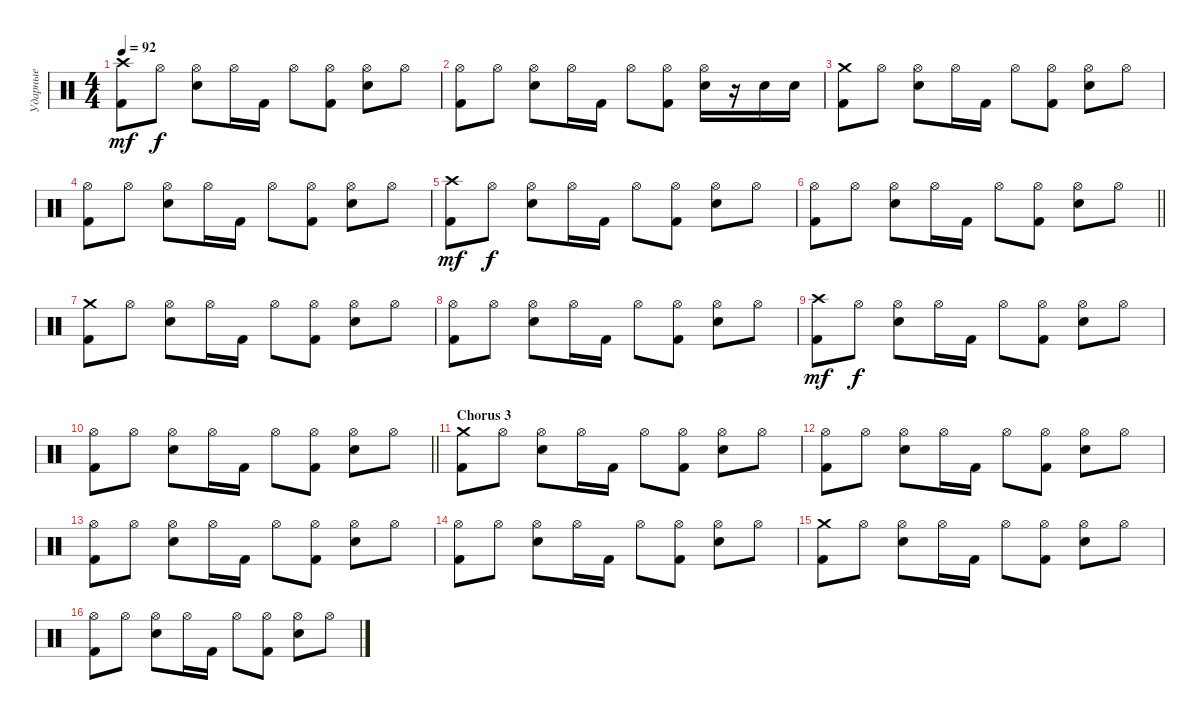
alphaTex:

\track ("Ударные" "Ударные") {instrument percussion}
\staff {score}
\articulation defaults
\ts (4 4)
\tempo 92
\clef neutral
\ks c
("Crash high (hit)" "Kick (hit) 2").8{dy mf} "Hi-Hat (open)".8{dy f} ("Hi-Hat (open)" "Electric Snare (hit)").8 "Hi-Hat (open)".16 "Kick (hit) 2".16 "Hi-Hat (open)".8 ("Hi-Hat (open)" "Kick (hit) 2").8 ("Hi-Hat (open)" "Electric Snare (hit)").8 "Hi-Hat (open)".8 |
("Hi-Hat (open)" "Kick (hit) 2").8 "Hi-Hat (open)".8 ("Hi-Hat (open)" "Electric Snare (hit)").8 "Hi-Hat (open)".16 "Kick (hit) 2".16 "Hi-Hat (open)".8 ("Hi-Hat (open)" "Kick (hit) 2").8 ("Hi-Hat (open)" "Electric Snare (hit)").16 r.16 "Electric Snare (hit)".16 "Electric Snare (hit)".16 |
("Crash medium (hit)" "Kick (hit) 2").8 "Hi-Hat (open)".8 ("Hi-Hat (open)" "Electric Snare (hit)").8 "Hi-Hat (open)".16 "Kick (hit) 2".16 "Hi-Hat (open)".8 ("Hi-Hat (open)" "Kick (hit) 2").8 ("Hi-Hat (open)" "Electric Snare (hit)").8 "Hi-Hat (open)".8 |
("Hi-Hat (open)" "Kick (hit) 2").8 "Hi-Hat (open)".8 ("Hi-Hat (open)" "Electric Snare (hit)").8 "Hi-Hat (open)".16 "Kick (hit) 2".16 "Hi-Hat (open)".8 ("Hi-Hat (open)" "Kick (hit) 2").8 ("Hi-Hat (open)" "Electric Snare (hit)").8 "Hi-Hat (open)".8 |
("Crash high (hit)" "Kick (hit) 2").8{dy mf} "Hi-Hat (open)".8{dy f} ("Hi-Hat (open)" "Electric Snare (hit)").8 "Hi-Hat (open)".16 "Kick (hit) 2".16 "Hi-Hat (open)".8 ("Hi-Hat (open)" "Kick (hit) 2").8 ("Hi-Hat (open)" "Electric Snare (hit)").8 "Hi-Hat (open)".8 |
\barLineRight lightlight
("Hi-Hat (open)" "Kick (hit) 2").8 "Hi-Hat (open)".8 ("Hi-Hat (open)" "Electric Snare (hit)").8 "Hi-Hat (open)".16 "Kick (hit) 2".16 "Hi-Hat (open)".8 ("Hi-Hat (open)" "Kick (hit) 2").8 ("Hi-Hat (open)" "Electric Snare (hit)").8 "Hi-Hat (open)".8 |
("Crash medium (hit)" "Kick (hit) 2").8 "Hi-Hat (open)".8 ("Hi-Hat (open)" "Electric Snare (hit)").8 "Hi-Hat (open)".16 "Kick (hit) 2".16 "Hi-Hat (open)".8 ("Hi-Hat (open)" "Kick (hit) 2").8 ("Hi-Hat (open)" "Electric Snare (hit)").8 "Hi-Hat (open)".8 |
("Hi-Hat (open)" "Kick (hit) 2").8 "Hi-Hat (open)".8 ("Hi-Hat (open)" "Electric Snare (hit)").8 "Hi-Hat (open)".16 "Kick (hit) 2".16 "Hi-Hat (open)".8 ("Hi-Hat (open)" "Kick (hit) 2").8 ("Hi-Hat (open)" "Electric Snare (hit)").8 "Hi-Hat (open)".8 |
("Crash high (hit)" "Kick (hit) 2").8{dy mf} "Hi-Hat (open)".8{dy f} ("Hi-Hat (open)" "Electric Snare (hit)").8 "Hi-Hat (open)".16 "Kick (hit) 2".16 "Hi-Hat (open)".8 ("Hi-Hat (open)" "Kick (hit) 2").8 ("Hi-Hat (open)" "Electric Snare (hit)").8 "Hi-Hat (open)".8 |
\barLineRight lightlight
("Hi-Hat (open)" "Kick (hit) 2").8 "Hi-Hat (open)".8 ("Hi-Hat (open)" "Electric Snare (hit)").8 "Hi-Hat (open)".16 "Kick (hit) 2".16 "Hi-Hat (open)".8 ("Hi-Hat (open)" "Kick (hit) 2").8 ("Hi-Hat (open)" "Electric Snare (hit)").8 "Hi-Hat (open)".8 |
\section ("" "Chorus 3")
("Crash medium (hit)" "Kick (hit) 2").8 "Hi-Hat (open)".8 ("Hi-Hat (open)" "Electric Snare (hit)").8 "Hi-Hat (open)".16 "Kick (hit) 2".16 "Hi-Hat (open)".8 ("Hi-Hat (open)" "Kick (hit) 2").8 ("Hi-Hat (open)" "Electric Snare (hit)").8 "Hi-Hat (open)".8 |
("Hi-Hat (open)" "Kick (hit) 2").8 "Hi-Hat (open)".8 ("Hi-Hat (open)" "Electric Snare (hit)").8 "Hi-Hat (open)".16 "Kick (hit) 2".16 "Hi-Hat (open)".8 ("Hi-Hat (open)" "Kick (hit) 2").8 ("Hi-Hat (open)" "Electric Snare (hit)").8 "Hi-Hat (open)".8 |
("Hi-Hat (open)" "Kick (hit) 2").8 "Hi-Hat (open)".8 ("Hi-Hat (open)" "Electric Snare (hit)").8 "Hi-Hat (open)".16 "Kick (hit) 2".16 "Hi-Hat (open)".8 ("Hi-Hat (open)" "Kick (hit) 2").8 ("Hi-Hat (open)" "Electric Snare (hit)").8 "Hi-Hat (open)".8 |
("Hi-Hat (open)" "Kick (hit) 2").8 "Hi-Hat (open)".8 ("Hi-Hat (open)" "Electric Snare (hit)").8 "Hi-Hat (open)".16 "Kick (hit) 2".16 "Hi-Hat (open)".8 ("Hi-Hat (open)" "Kick (hit) 2").8 ("Hi-Hat (open)" "Electric Snare (hit)").8 "Hi-Hat (open)".8 |
("Crash medium (hit)" "Kick (hit) 2").8 "Hi-Hat (open)".8 ("Hi-Hat (open)" "Electric Snare (hit)").8 "Hi-Hat (open)".16 "Kick (hit) 2".16 "Hi-Hat (open)".8 ("Hi-Hat (open)" "Kick (hit) 2").8 ("Hi-Hat (open)" "Electric Snare (hit)").8 "Hi-Hat (open)".8 |
("Hi-Hat (open)" "Kick (hit) 2").8 "Hi-Hat (open)".8 ("Hi-Hat (open)" "Electric Snare (hit)").8 "Hi-Hat (open)".16 "Kick (hit) 2".16 "Hi-Hat (open)".8 ("Hi-Hat (open)" "Kick (hit) 2").8 ("Hi-Hat (open)" "Electric Snare (hit)").8 "Hi-Hat (open)".8
